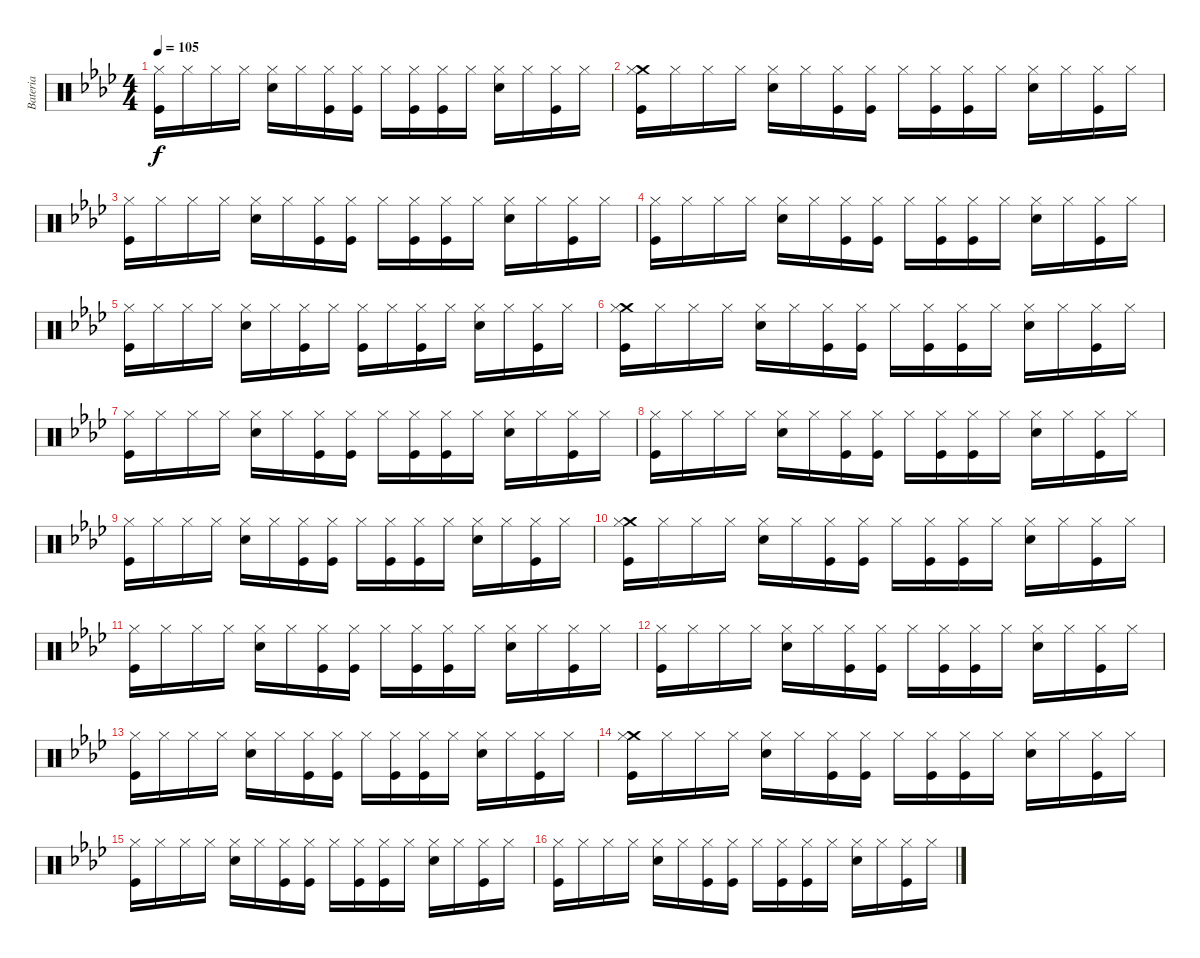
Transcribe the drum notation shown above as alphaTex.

\track ("Bateria" "Bateria") {instrument percussion}
\staff {score}
\articulation defaults
\ts (4 4)
\tempo 105
\clef neutral
\ks fminor
("Kick (hit)" "Hi-Hat (closed)").16{dy f} "Hi-Hat (closed)".16 "Hi-Hat (closed)".16 "Hi-Hat (closed)".16 ("Snare (hit) 2" "Hi-Hat (closed)").16 "Hi-Hat (closed)".16 ("Hi-Hat (closed)" "Kick (hit)").16 ("Hi-Hat (closed)" "Kick (hit)").16 "Hi-Hat (closed)".16 ("Hi-Hat (closed)" "Kick (hit)").16 ("Hi-Hat (closed)" "Kick (hit)").16 "Hi-Hat (closed)".16 ("Hi-Hat (closed)" "Snare (hit) 2").16 "Hi-Hat (closed)".16 ("Hi-Hat (closed)" "Kick (hit)").16 "Hi-Hat (closed)".16 |
("Crash medium (hit)" "Kick (hit)" "Hi-Hat (closed)").16 "Hi-Hat (closed)".16 "Hi-Hat (closed)".16 "Hi-Hat (closed)".16 ("Snare (hit) 2" "Hi-Hat (closed)").16 "Hi-Hat (closed)".16 ("Hi-Hat (closed)" "Kick (hit)").16 ("Hi-Hat (closed)" "Kick (hit)").16 "Hi-Hat (closed)".16 ("Kick (hit)" "Hi-Hat (closed)").16 ("Hi-Hat (closed)" "Kick (hit)").16 "Hi-Hat (closed)".16 ("Hi-Hat (closed)" "Snare (hit) 2").16 "Hi-Hat (closed)".16 ("Hi-Hat (closed)" "Kick (hit)").16 "Hi-Hat (closed)".16 |
("Kick (hit)" "Hi-Hat (closed)").16 "Hi-Hat (closed)".16 "Hi-Hat (closed)".16 "Hi-Hat (closed)".16 ("Snare (hit) 2" "Hi-Hat (closed)").16 "Hi-Hat (closed)".16 ("Hi-Hat (closed)" "Kick (hit)").16 ("Hi-Hat (closed)" "Kick (hit)").16 "Hi-Hat (closed)".16 ("Hi-Hat (closed)" "Kick (hit)").16 ("Hi-Hat (closed)" "Kick (hit)").16 "Hi-Hat (closed)".16 ("Hi-Hat (closed)" "Snare (hit) 2").16 "Hi-Hat (closed)".16 ("Hi-Hat (closed)" "Kick (hit)").16 "Hi-Hat (closed)".16 |
("Kick (hit)" "Hi-Hat (closed)").16 "Hi-Hat (closed)".16 "Hi-Hat (closed)".16 "Hi-Hat (closed)".16 ("Snare (hit) 2" "Hi-Hat (closed)").16 "Hi-Hat (closed)".16 ("Hi-Hat (closed)" "Kick (hit)").16 ("Hi-Hat (closed)" "Kick (hit)").16 "Hi-Hat (closed)".16 ("Kick (hit)" "Hi-Hat (closed)").16 ("Hi-Hat (closed)" "Kick (hit)").16 "Hi-Hat (closed)".16 ("Hi-Hat (closed)" "Snare (hit) 2").16 "Hi-Hat (closed)".16 ("Hi-Hat (closed)" "Kick (hit)").16 "Hi-Hat (closed)".16 |
("Kick (hit)" "Hi-Hat (closed)").16 "Hi-Hat (closed)".16 "Hi-Hat (closed)".16 "Hi-Hat (closed)".16 ("Snare (hit) 2" "Hi-Hat (closed)").16 "Hi-Hat (closed)".16 ("Hi-Hat (closed)" "Kick (hit)").16 "Hi-Hat (closed)".16 ("Hi-Hat (closed)" "Kick (hit)").16 "Hi-Hat (closed)".16 ("Hi-Hat (closed)" "Kick (hit)").16 "Hi-Hat (closed)".16 ("Hi-Hat (closed)" "Snare (hit) 2").16 "Hi-Hat (closed)".16 ("Hi-Hat (closed)" "Kick (hit)").16 "Hi-Hat (closed)".16 |
("Crash medium (hit)" "Kick (hit)" "Hi-Hat (closed)").16 "Hi-Hat (closed)".16 "Hi-Hat (closed)".16 "Hi-Hat (closed)".16 ("Snare (hit) 2" "Hi-Hat (closed)").16 "Hi-Hat (closed)".16 ("Hi-Hat (closed)" "Kick (hit)").16 ("Hi-Hat (closed)" "Kick (hit)").16 "Hi-Hat (closed)".16 ("Kick (hit)" "Hi-Hat (closed)").16 ("Hi-Hat (closed)" "Kick (hit)").16 "Hi-Hat (closed)".16 ("Hi-Hat (closed)" "Snare (hit) 2").16 "Hi-Hat (closed)".16 ("Hi-Hat (closed)" "Kick (hit)").16 "Hi-Hat (closed)".16 |
("Kick (hit)" "Hi-Hat (closed)").16 "Hi-Hat (closed)".16 "Hi-Hat (closed)".16 "Hi-Hat (closed)".16 ("Snare (hit) 2" "Hi-Hat (closed)").16 "Hi-Hat (closed)".16 ("Hi-Hat (closed)" "Kick (hit)").16 ("Hi-Hat (closed)" "Kick (hit)").16 "Hi-Hat (closed)".16 ("Hi-Hat (closed)" "Kick (hit)").16 ("Hi-Hat (closed)" "Kick (hit)").16 "Hi-Hat (closed)".16 ("Hi-Hat (closed)" "Snare (hit) 2").16 "Hi-Hat (closed)".16 ("Hi-Hat (closed)" "Kick (hit)").16 "Hi-Hat (closed)".16 |
("Kick (hit)" "Hi-Hat (closed)").16 "Hi-Hat (closed)".16 "Hi-Hat (closed)".16 "Hi-Hat (closed)".16 ("Snare (hit) 2" "Hi-Hat (closed)").16 "Hi-Hat (closed)".16 ("Hi-Hat (closed)" "Kick (hit)").16 ("Hi-Hat (closed)" "Kick (hit)").16 "Hi-Hat (closed)".16 ("Kick (hit)" "Hi-Hat (closed)").16 ("Hi-Hat (closed)" "Kick (hit)").16 "Hi-Hat (closed)".16 ("Hi-Hat (closed)" "Snare (hit) 2").16 "Hi-Hat (closed)".16 ("Hi-Hat (closed)" "Kick (hit)").16 "Hi-Hat (closed)".16 |
("Kick (hit)" "Hi-Hat (closed)").16 "Hi-Hat (closed)".16 "Hi-Hat (closed)".16 "Hi-Hat (closed)".16 ("Snare (hit) 2" "Hi-Hat (closed)").16 "Hi-Hat (closed)".16 ("Hi-Hat (closed)" "Kick (hit)").16 ("Hi-Hat (closed)" "Kick (hit)").16 "Hi-Hat (closed)".16 ("Hi-Hat (closed)" "Kick (hit)").16 ("Hi-Hat (closed)" "Kick (hit)").16 "Hi-Hat (closed)".16 ("Hi-Hat (closed)" "Snare (hit) 2").16 "Hi-Hat (closed)".16 ("Hi-Hat (closed)" "Kick (hit)").16 "Hi-Hat (closed)".16 |
("Crash medium (hit)" "Kick (hit)" "Hi-Hat (closed)").16 "Hi-Hat (closed)".16 "Hi-Hat (closed)".16 "Hi-Hat (closed)".16 ("Snare (hit) 2" "Hi-Hat (closed)").16 "Hi-Hat (closed)".16 ("Hi-Hat (closed)" "Kick (hit)").16 ("Hi-Hat (closed)" "Kick (hit)").16 "Hi-Hat (closed)".16 ("Kick (hit)" "Hi-Hat (closed)").16 ("Hi-Hat (closed)" "Kick (hit)").16 "Hi-Hat (closed)".16 ("Hi-Hat (closed)" "Snare (hit) 2").16 "Hi-Hat (closed)".16 ("Hi-Hat (closed)" "Kick (hit)").16 "Hi-Hat (closed)".16 |
("Kick (hit)" "Hi-Hat (closed)").16 "Hi-Hat (closed)".16 "Hi-Hat (closed)".16 "Hi-Hat (closed)".16 ("Snare (hit) 2" "Hi-Hat (closed)").16 "Hi-Hat (closed)".16 ("Hi-Hat (closed)" "Kick (hit)").16 ("Hi-Hat (closed)" "Kick (hit)").16 "Hi-Hat (closed)".16 ("Hi-Hat (closed)" "Kick (hit)").16 ("Hi-Hat (closed)" "Kick (hit)").16 "Hi-Hat (closed)".16 ("Hi-Hat (closed)" "Snare (hit) 2").16 "Hi-Hat (closed)".16 ("Hi-Hat (closed)" "Kick (hit)").16 "Hi-Hat (closed)".16 |
("Kick (hit)" "Hi-Hat (closed)").16 "Hi-Hat (closed)".16 "Hi-Hat (closed)".16 "Hi-Hat (closed)".16 ("Snare (hit) 2" "Hi-Hat (closed)").16 "Hi-Hat (closed)".16 ("Hi-Hat (closed)" "Kick (hit)").16 ("Hi-Hat (closed)" "Kick (hit)").16 "Hi-Hat (closed)".16 ("Kick (hit)" "Hi-Hat (closed)").16 ("Hi-Hat (closed)" "Kick (hit)").16 "Hi-Hat (closed)".16 ("Hi-Hat (closed)" "Snare (hit) 2").16 "Hi-Hat (closed)".16 ("Hi-Hat (closed)" "Kick (hit)").16 "Hi-Hat (closed)".16 |
("Kick (hit)" "Hi-Hat (closed)").16 "Hi-Hat (closed)".16 "Hi-Hat (closed)".16 "Hi-Hat (closed)".16 ("Snare (hit) 2" "Hi-Hat (closed)").16 "Hi-Hat (closed)".16 ("Hi-Hat (closed)" "Kick (hit)").16 ("Hi-Hat (closed)" "Kick (hit)").16 "Hi-Hat (closed)".16 ("Hi-Hat (closed)" "Kick (hit)").16 ("Hi-Hat (closed)" "Kick (hit)").16 "Hi-Hat (closed)".16 ("Hi-Hat (closed)" "Snare (hit) 2").16 "Hi-Hat (closed)".16 ("Hi-Hat (closed)" "Kick (hit)").16 "Hi-Hat (closed)".16 |
("Crash medium (hit)" "Kick (hit)" "Hi-Hat (closed)").16 "Hi-Hat (closed)".16 "Hi-Hat (closed)".16 "Hi-Hat (closed)".16 ("Snare (hit) 2" "Hi-Hat (closed)").16 "Hi-Hat (closed)".16 ("Hi-Hat (closed)" "Kick (hit)").16 ("Hi-Hat (closed)" "Kick (hit)").16 "Hi-Hat (closed)".16 ("Kick (hit)" "Hi-Hat (closed)").16 ("Hi-Hat (closed)" "Kick (hit)").16 "Hi-Hat (closed)".16 ("Hi-Hat (closed)" "Snare (hit) 2").16 "Hi-Hat (closed)".16 ("Hi-Hat (closed)" "Kick (hit)").16 "Hi-Hat (closed)".16 |
("Kick (hit)" "Hi-Hat (closed)").16 "Hi-Hat (closed)".16 "Hi-Hat (closed)".16 "Hi-Hat (closed)".16 ("Snare (hit) 2" "Hi-Hat (closed)").16 "Hi-Hat (closed)".16 ("Hi-Hat (closed)" "Kick (hit)").16 ("Hi-Hat (closed)" "Kick (hit)").16 "Hi-Hat (closed)".16 ("Hi-Hat (closed)" "Kick (hit)").16 ("Hi-Hat (closed)" "Kick (hit)").16 "Hi-Hat (closed)".16 ("Hi-Hat (closed)" "Snare (hit) 2").16 "Hi-Hat (closed)".16 ("Hi-Hat (closed)" "Kick (hit)").16 "Hi-Hat (closed)".16 |
("Kick (hit)" "Hi-Hat (closed)").16 "Hi-Hat (closed)".16 "Hi-Hat (closed)".16 "Hi-Hat (closed)".16 ("Snare (hit) 2" "Hi-Hat (closed)").16 "Hi-Hat (closed)".16 ("Hi-Hat (closed)" "Kick (hit)").16 ("Hi-Hat (closed)" "Kick (hit)").16 "Hi-Hat (closed)".16 ("Kick (hit)" "Hi-Hat (closed)").16 ("Hi-Hat (closed)" "Kick (hit)").16 "Hi-Hat (closed)".16 ("Hi-Hat (closed)" "Snare (hit) 2").16 "Hi-Hat (closed)".16 ("Hi-Hat (closed)" "Kick (hit)").16 "Hi-Hat (closed)".16
